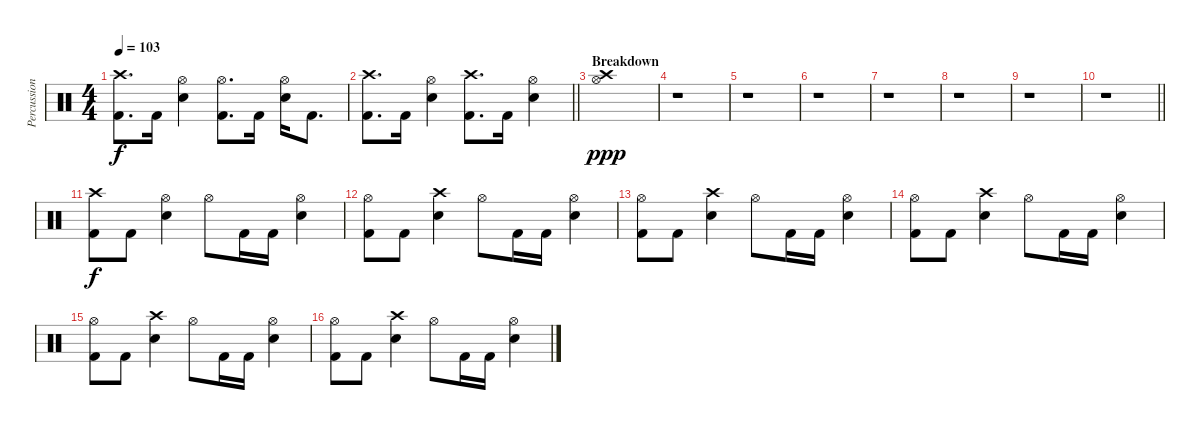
\track ("Percussions" "Percussion") {instrument percussion}
\staff {score}
\articulation defaults
\ts (4 4)
\tempo 103
\clef neutral
\ks c
("Crash high (hit)" "Kick (hit) 2").8{d dy f} "Kick (hit) 2".16 ("Hi-Hat (open)" "Electric Snare (hit)").4 ("Hi-Hat (open)" "Kick (hit) 2").8{d} "Kick (hit) 2".16 ("Hi-Hat (open)" "Electric Snare (hit)").16 "Kick (hit) 2".8{d} |
\barLineRight lightlight
("Crash high (hit)" "Kick (hit) 2").8{d} "Kick (hit) 2".16 ("Hi-Hat (open)" "Electric Snare (hit)").4 ("Crash high (hit)" "Kick (hit) 2").8{d} "Kick (hit) 2".16 ("Hi-Hat (open)" "Electric Snare (hit)").4 |
\section ("" "Breakdown")
("Crash high (hit)" "Hi-Hat (open)").1{dy ppp} |
r.1 |
r.1 |
r.1 |
r.1 |
r.1 |
r.1 |
\barLineRight lightlight
r.1 |
("Crash high (hit)" "Kick (hit) 2").8{dy f} "Kick (hit) 2".8 ("Hi-Hat (open)" "Electric Snare (hit)").4 "Hi-Hat (open)".8 "Kick (hit) 2".16 "Kick (hit) 2".16 ("Hi-Hat (open)" "Electric Snare (hit)").4 |
("Hi-Hat (open)" "Kick (hit) 2").8 "Kick (hit) 2".8 ("Crash high (hit)" "Electric Snare (hit)").4 "Hi-Hat (open)".8 "Kick (hit) 2".16 "Kick (hit) 2".16 ("Hi-Hat (open)" "Electric Snare (hit)").4 |
("Hi-Hat (open)" "Kick (hit) 2").8 "Kick (hit) 2".8 ("Crash high (hit)" "Electric Snare (hit)").4 "Hi-Hat (open)".8 "Kick (hit) 2".16 "Kick (hit) 2".16 ("Hi-Hat (open)" "Electric Snare (hit)").4 |
("Hi-Hat (open)" "Kick (hit) 2").8 "Kick (hit) 2".8 ("Crash high (hit)" "Electric Snare (hit)").4 "Hi-Hat (open)".8 "Kick (hit) 2".16 "Kick (hit) 2".16 ("Hi-Hat (open)" "Electric Snare (hit)").4 |
("Hi-Hat (open)" "Kick (hit) 2").8 "Kick (hit) 2".8 ("Crash high (hit)" "Electric Snare (hit)").4 "Hi-Hat (open)".8 "Kick (hit) 2".16 "Kick (hit) 2".16 ("Hi-Hat (open)" "Electric Snare (hit)").4 |
("Hi-Hat (open)" "Kick (hit) 2").8 "Kick (hit) 2".8 ("Crash high (hit)" "Electric Snare (hit)").4 "Hi-Hat (open)".8 "Kick (hit) 2".16 "Kick (hit) 2".16 ("Hi-Hat (open)" "Electric Snare (hit)").4
